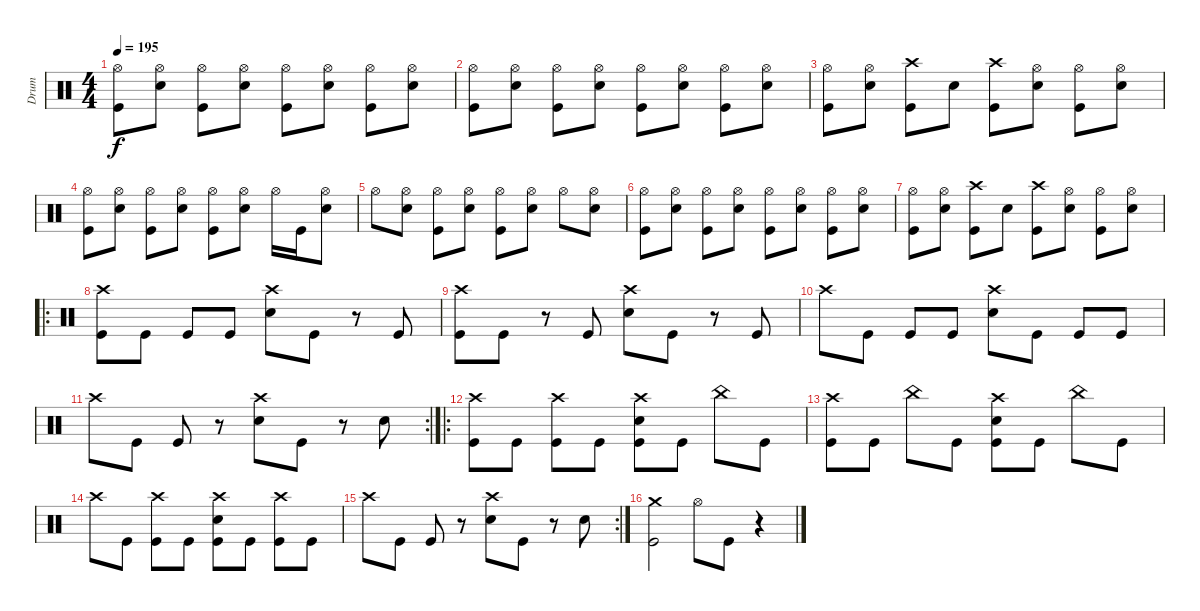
\track ("Drum" "Drum") {instrument percussion}
\staff {score}
\articulation defaults
\ts (4 4)
\tempo 195
\clef neutral
\ks c
("Hi-Hat (open)" "Kick (hit)").8{dy f} ("Hi-Hat (open)" "Snare (hit) 2").8 ("Hi-Hat (open)" "Kick (hit)").8 ("Hi-Hat (open)" "Snare (hit) 2").8 ("Hi-Hat (open)" "Kick (hit)").8 ("Hi-Hat (open)" "Snare (hit) 2").8 ("Hi-Hat (open)" "Kick (hit)").8 ("Hi-Hat (open)" "Snare (hit) 2").8 |
("Hi-Hat (open)" "Kick (hit)").8 ("Hi-Hat (open)" "Snare (hit) 2").8 ("Hi-Hat (open)" "Kick (hit)").8 ("Hi-Hat (open)" "Snare (hit) 2").8 ("Hi-Hat (open)" "Kick (hit)").8 ("Hi-Hat (open)" "Snare (hit) 2").8 ("Hi-Hat (open)" "Kick (hit)").8 ("Hi-Hat (open)" "Snare (hit) 2").8 |
("Hi-Hat (open)" "Kick (hit)").8 ("Hi-Hat (open)" "Snare (hit) 2").8 ("Crash high (hit)" "Kick (hit)").8 "Snare (hit) 2".8 ("Crash high (hit)" "Kick (hit)").8 ("Hi-Hat (open)" "Snare (hit) 2").8 ("Hi-Hat (open)" "Kick (hit)").8 ("Hi-Hat (open)" "Snare (hit) 2").8 |
("Hi-Hat (open)" "Kick (hit)").8 ("Hi-Hat (open)" "Snare (hit) 2").8 ("Hi-Hat (open)" "Kick (hit)").8 ("Hi-Hat (open)" "Snare (hit) 2").8 ("Hi-Hat (open)" "Kick (hit)").8 ("Hi-Hat (open)" "Snare (hit) 2").8 "Hi-Hat (open)".16 "Kick (hit)".16 ("Hi-Hat (open)" "Snare (hit) 2").8 |
"Hi-Hat (open)".8 ("Hi-Hat (open)" "Snare (hit) 2").8 ("Hi-Hat (open)" "Kick (hit)").8 ("Hi-Hat (open)" "Snare (hit) 2").8 ("Hi-Hat (open)" "Kick (hit)").8 ("Hi-Hat (open)" "Snare (hit) 2").8 "Hi-Hat (open)".8 ("Hi-Hat (open)" "Snare (hit) 2").8 |
("Hi-Hat (open)" "Kick (hit)").8 ("Hi-Hat (open)" "Snare (hit) 2").8 ("Hi-Hat (open)" "Kick (hit)").8 ("Hi-Hat (open)" "Snare (hit) 2").8 ("Hi-Hat (open)" "Kick (hit)").8 ("Hi-Hat (open)" "Snare (hit) 2").8 ("Hi-Hat (open)" "Kick (hit)").8 ("Hi-Hat (open)" "Snare (hit) 2").8 |
("Hi-Hat (open)" "Kick (hit)").8 ("Hi-Hat (open)" "Snare (hit) 2").8 ("Crash high (hit)" "Kick (hit)").8 "Snare (hit) 2".8 ("Crash high (hit)" "Kick (hit)").8 ("Hi-Hat (open)" "Snare (hit) 2").8 ("Hi-Hat (open)" "Kick (hit)").8 ("Hi-Hat (open)" "Snare (hit) 2").8 |
\ro
("Crash high (hit)" "Kick (hit)").8 "Kick (hit)".8 "Kick (hit)".8 "Kick (hit)".8 ("Crash high (hit)" "Snare (hit) 2").8 "Kick (hit)".8 r.8 "Kick (hit)".8 |
("Crash high (hit)" "Kick (hit)").8 "Kick (hit)".8 r.8 "Kick (hit)".8 ("Crash high (hit)" "Snare (hit) 2").8 "Kick (hit)".8 r.8 "Kick (hit)".8 |
"Crash high (hit)".8 "Kick (hit)".8 "Kick (hit)".8 "Kick (hit)".8 ("Crash high (hit)" "Snare (hit) 2").8 "Kick (hit)".8 "Kick (hit)".8 "Kick (hit)".8 |
\rc 2 "Crash high (hit)".8 "Kick (hit)".8 "Kick (hit)".8
r.8 ("Crash high (hit)" "Snare (hit) 2").8 "Kick (hit)".8 r.8 "Snare (hit) 2".8 |
\ro
("Crash high (hit)" "Kick (hit)").8 "Kick (hit)".8 ("Crash high (hit)" "Kick (hit)").8 "Kick (hit)".8 ("Crash high (hit)" "Snare (hit) 2" "Kick (hit)").8 "Kick (hit)".8 "China (hit)".8 "Kick (hit)".8 |
("Crash high (hit)" "Kick (hit)").8 "Kick (hit)".8 "China (hit)".8 "Kick (hit)".8 ("Crash high (hit)" "Snare (hit) 2" "Kick (hit)").8 "Kick (hit)".8 "China (hit)".8 "Kick (hit)".8 |
"Crash high (hit)".8 "Kick (hit)".8 ("Crash high (hit)" "Kick (hit)").8 "Kick (hit)".8 ("Crash high (hit)" "Snare (hit) 2" "Kick (hit)").8 "Kick (hit)".8 ("Crash high (hit)" "Kick (hit)").8 "Kick (hit)".8 |
\rc 2 "Crash high (hit)".8 "Kick (hit)".8 "Kick (hit)".8
r.8 ("Crash high (hit)" "Snare (hit) 2").8 "Kick (hit)".8 r.8 "Snare (hit) 2".8 |
("Crash medium (hit)" "Kick (hit)").2 "Hi-Hat (open)".8 "Kick (hit)".8 r.4
